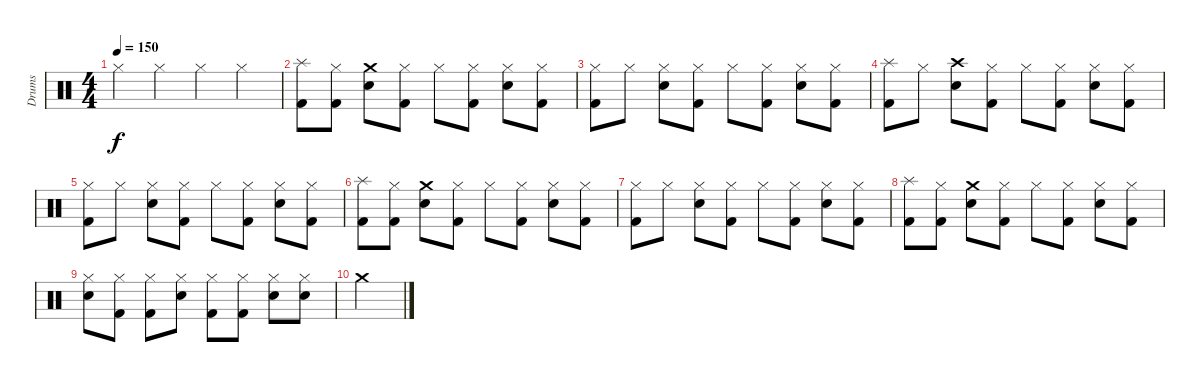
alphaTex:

\track ("Drums" "Drums") {instrument percussion}
\staff {score}
\articulation defaults
\ts (4 4)
\tempo 150
\clef neutral
\ks c "Hi-Hat (closed)".4{dy f} "Hi-Hat (closed)".4 "Hi-Hat (closed)".4 "Hi-Hat (closed)".4
|
("Splash (hit)" "Kick (hit) 2").8 ("Hi-Hat (closed)" "Kick (hit) 2").8 ("Crash medium (hit)" "Snare (hit) 2").8 ("Hi-Hat (closed)" "Kick (hit) 2").8 "Hi-Hat (closed)".8 ("Hi-Hat (closed)" "Kick (hit) 2").8 ("Hi-Hat (closed)" "Snare (hit) 2").8 ("Hi-Hat (closed)" "Kick (hit) 2").8 |
("Hi-Hat (closed)" "Kick (hit) 2").8 "Hi-Hat (closed)".8 ("Hi-Hat (closed)" "Snare (hit) 2").8 ("Hi-Hat (closed)" "Kick (hit) 2").8 "Hi-Hat (closed)".8 ("Hi-Hat (closed)" "Kick (hit) 2").8 ("Hi-Hat (closed)" "Snare (hit) 2").8 ("Hi-Hat (closed)" "Kick (hit) 2").8 |
("Splash (hit)" "Kick (hit) 2").8 "Hi-Hat (closed)".8 ("Crash high (hit)" "Snare (hit) 2").8 ("Hi-Hat (closed)" "Kick (hit) 2").8 "Hi-Hat (closed)".8 ("Hi-Hat (closed)" "Kick (hit) 2").8 ("Hi-Hat (closed)" "Snare (hit) 2").8 ("Hi-Hat (closed)" "Kick (hit) 2").8 |
("Hi-Hat (closed)" "Kick (hit) 2").8 "Hi-Hat (closed)".8 ("Hi-Hat (closed)" "Snare (hit) 2").8 ("Hi-Hat (closed)" "Kick (hit) 2").8 "Hi-Hat (closed)".8 ("Hi-Hat (closed)" "Kick (hit) 2").8 ("Hi-Hat (closed)" "Snare (hit) 2").8 ("Hi-Hat (closed)" "Kick (hit) 2").8 |
("Splash (hit)" "Kick (hit) 2").8 ("Hi-Hat (closed)" "Kick (hit) 2").8 ("Crash medium (hit)" "Snare (hit) 2").8 ("Hi-Hat (closed)" "Kick (hit) 2").8 "Hi-Hat (closed)".8 ("Hi-Hat (closed)" "Kick (hit) 2").8 ("Hi-Hat (closed)" "Snare (hit) 2").8 ("Hi-Hat (closed)" "Kick (hit) 2").8 |
("Hi-Hat (closed)" "Kick (hit) 2").8 "Hi-Hat (closed)".8 ("Hi-Hat (closed)" "Snare (hit) 2").8 ("Hi-Hat (closed)" "Kick (hit) 2").8 "Hi-Hat (closed)".8 ("Hi-Hat (closed)" "Kick (hit) 2").8 ("Hi-Hat (closed)" "Snare (hit) 2").8 ("Hi-Hat (closed)" "Kick (hit) 2").8 |
("Splash (hit)" "Kick (hit) 2").8 ("Hi-Hat (closed)" "Kick (hit) 2").8 ("Crash medium (hit)" "Snare (hit) 2").8 ("Hi-Hat (closed)" "Kick (hit) 2").8 "Hi-Hat (closed)".8 ("Hi-Hat (closed)" "Kick (hit) 2").8 ("Hi-Hat (closed)" "Snare (hit) 2").8 ("Hi-Hat (closed)" "Kick (hit) 2").8 |
("Hi-Hat (closed)" "Snare (hit) 2").8 ("Hi-Hat (closed)" "Kick (hit) 2").8 ("Hi-Hat (closed)" "Kick (hit) 2").8 ("Hi-Hat (closed)" "Snare (hit) 2").8 ("Hi-Hat (closed)" "Kick (hit) 2").8 ("Hi-Hat (closed)" "Kick (hit) 2").8 ("Hi-Hat (closed)" "Snare (hit) 2").8 ("Hi-Hat (closed)" "Snare (hit) 2").8 |
"Crash medium (hit)".2
